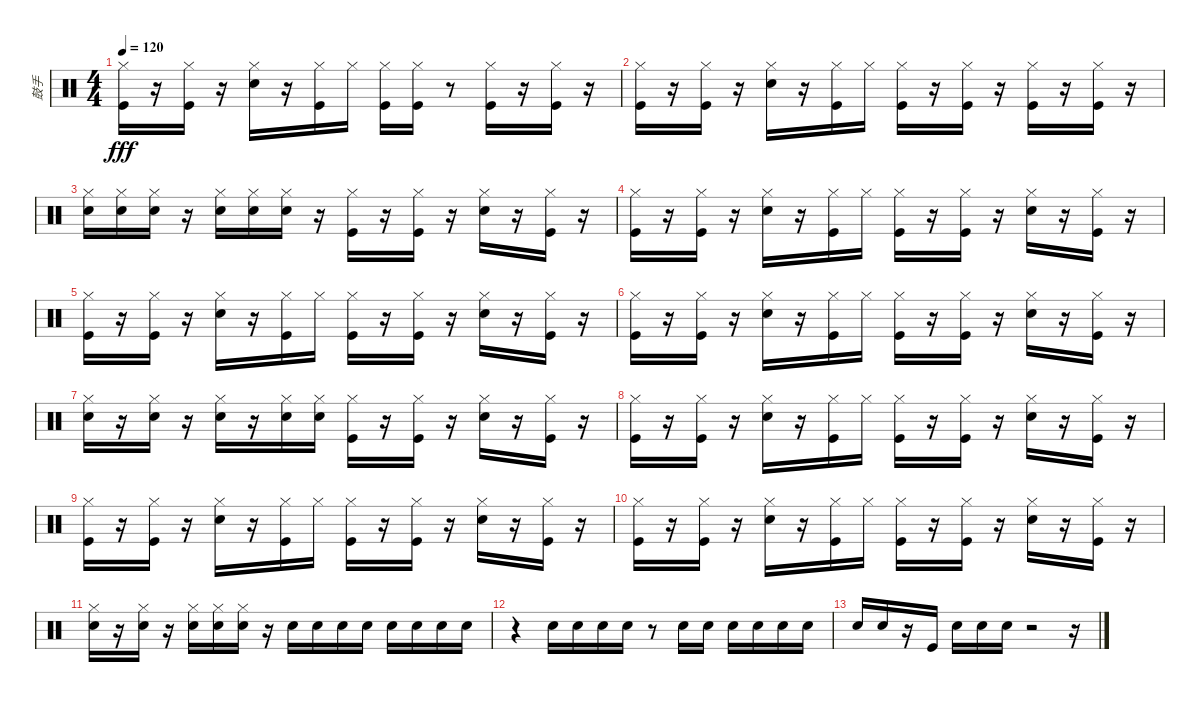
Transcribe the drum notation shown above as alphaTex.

\track ("鼓手" "鼓手") {instrument percussion}
\staff {score}
\articulation defaults
\ts (4 4)
\tempo 120
\clef neutral
\ks c
("Kick (hit)" "Hi-Hat (closed)").16{dy fff} r.16 ("Kick (hit)" "Hi-Hat (closed)").16 r.16 ("Snare (hit) 2" "Hi-Hat (closed)").16 r.16 ("Kick (hit)" "Hi-Hat (closed)").16 "Hi-Hat (closed)".16 ("Kick (hit)" "Hi-Hat (closed)").16 ("Kick (hit)" "Hi-Hat (closed)").16 r.8 ("Kick (hit)" "Hi-Hat (closed)").16 r.16 ("Kick (hit)" "Hi-Hat (closed)").16 r.16 |
("Kick (hit)" "Hi-Hat (closed)").16 r.16 ("Kick (hit)" "Hi-Hat (closed)").16 r.16 ("Snare (hit) 2" "Hi-Hat (closed)").16 r.16 ("Kick (hit)" "Hi-Hat (closed)").16 "Hi-Hat (closed)".16 ("Kick (hit)" "Hi-Hat (closed)").16 r.16 ("Kick (hit)" "Hi-Hat (closed)").16 r.16 ("Kick (hit)" "Hi-Hat (closed)").16 r.16 ("Kick (hit)" "Hi-Hat (closed)").16 r.16 |
("Snare (hit) 2" "Hi-Hat (closed)").16 ("Snare (hit) 2" "Hi-Hat (closed)").16 ("Snare (hit) 2" "Hi-Hat (closed)").16 r.16 ("Snare (hit) 2" "Hi-Hat (closed)").16 ("Snare (hit) 2" "Hi-Hat (closed)").16 ("Snare (hit) 2" "Hi-Hat (closed)").16 r.16 ("Kick (hit)" "Hi-Hat (closed)").16 r.16 ("Kick (hit)" "Hi-Hat (closed)").16 r.16 ("Snare (hit) 2" "Hi-Hat (closed)").16 r.16 ("Kick (hit)" "Hi-Hat (closed)").16 r.16 |
("Kick (hit)" "Hi-Hat (closed)").16 r.16 ("Kick (hit)" "Hi-Hat (closed)").16 r.16 ("Snare (hit) 2" "Hi-Hat (closed)").16 r.16 ("Kick (hit)" "Hi-Hat (closed)").16 "Hi-Hat (closed)".16 ("Kick (hit)" "Hi-Hat (closed)").16 r.16 ("Kick (hit)" "Hi-Hat (closed)").16 r.16 ("Snare (hit) 2" "Hi-Hat (closed)").16 r.16 ("Kick (hit)" "Hi-Hat (closed)").16 r.16 |
("Kick (hit)" "Hi-Hat (closed)").16 r.16 ("Kick (hit)" "Hi-Hat (closed)").16 r.16 ("Snare (hit) 2" "Hi-Hat (closed)").16 r.16 ("Kick (hit)" "Hi-Hat (closed)").16 "Hi-Hat (closed)".16 ("Kick (hit)" "Hi-Hat (closed)").16 r.16 ("Kick (hit)" "Hi-Hat (closed)").16 r.16 ("Snare (hit) 2" "Hi-Hat (closed)").16 r.16 ("Kick (hit)" "Hi-Hat (closed)").16 r.16 |
("Kick (hit)" "Hi-Hat (closed)").16 r.16 ("Kick (hit)" "Hi-Hat (closed)").16 r.16 ("Snare (hit) 2" "Hi-Hat (closed)").16 r.16 ("Kick (hit)" "Hi-Hat (closed)").16 "Hi-Hat (closed)".16 ("Kick (hit)" "Hi-Hat (closed)").16 r.16 ("Kick (hit)" "Hi-Hat (closed)").16 r.16 ("Snare (hit) 2" "Hi-Hat (closed)").16 r.16 ("Kick (hit)" "Hi-Hat (closed)").16 r.16 |
("Snare (hit) 2" "Hi-Hat (closed)").16 r.16 ("Snare (hit) 2" "Hi-Hat (closed)").16 r.16 ("Snare (hit) 2" "Hi-Hat (closed)").16 r.16 ("Snare (hit) 2" "Hi-Hat (closed)").16 ("Snare (hit) 2" "Hi-Hat (closed)").16 ("Kick (hit)" "Hi-Hat (closed)").16 r.16 ("Kick (hit)" "Hi-Hat (closed)").16 r.16 ("Snare (hit) 2" "Hi-Hat (closed)").16 r.16 ("Kick (hit)" "Hi-Hat (closed)").16 r.16 |
("Kick (hit)" "Hi-Hat (closed)").16 r.16 ("Kick (hit)" "Hi-Hat (closed)").16 r.16 ("Snare (hit) 2" "Hi-Hat (closed)").16 r.16 ("Kick (hit)" "Hi-Hat (closed)").16 "Hi-Hat (closed)".16 ("Kick (hit)" "Hi-Hat (closed)").16 r.16 ("Kick (hit)" "Hi-Hat (closed)").16 r.16 ("Snare (hit) 2" "Hi-Hat (closed)").16 r.16 ("Kick (hit)" "Hi-Hat (closed)").16 r.16 |
("Kick (hit)" "Hi-Hat (closed)").16 r.16 ("Kick (hit)" "Hi-Hat (closed)").16 r.16 ("Snare (hit) 2" "Hi-Hat (closed)").16 r.16 ("Kick (hit)" "Hi-Hat (closed)").16 "Hi-Hat (closed)".16 ("Kick (hit)" "Hi-Hat (closed)").16 r.16 ("Kick (hit)" "Hi-Hat (closed)").16 r.16 ("Snare (hit) 2" "Hi-Hat (closed)").16 r.16 ("Kick (hit)" "Hi-Hat (closed)").16 r.16 |
("Kick (hit)" "Hi-Hat (closed)").16 r.16 ("Kick (hit)" "Hi-Hat (closed)").16 r.16 ("Snare (hit) 2" "Hi-Hat (closed)").16 r.16 ("Kick (hit)" "Hi-Hat (closed)").16 "Hi-Hat (closed)".16 ("Kick (hit)" "Hi-Hat (closed)").16 r.16 ("Kick (hit)" "Hi-Hat (closed)").16 r.16 ("Snare (hit) 2" "Hi-Hat (closed)").16 r.16 ("Kick (hit)" "Hi-Hat (closed)").16 r.16 |
("Snare (hit) 2" "Hi-Hat (closed)").16 r.16 ("Snare (hit) 2" "Hi-Hat (closed)").16 r.16 ("Snare (hit) 2" "Hi-Hat (closed)").16 ("Snare (hit) 2" "Hi-Hat (closed)").16 ("Snare (hit) 2" "Hi-Hat (closed)").16 r.16 "Snare (hit) 2".16 "Snare (hit) 2".16 "Snare (hit) 2".16 "Snare (hit) 2".16 "Snare (hit) 2".16 "Snare (hit) 2".16 "Snare (hit) 2".16 "Snare (hit) 2".16 |
r.4 "Snare (hit) 2".16 "Snare (hit) 2".16 "Snare (hit) 2".16 "Snare (hit) 2".16 r.8 "Snare (hit) 2".16 "Snare (hit) 2".16 "Snare (hit) 2".16 "Snare (hit) 2".16 "Snare (hit) 2".16 "Snare (hit) 2".16 |
"Snare (hit) 2".16 "Snare (hit) 2".16 r.16 "Kick (hit)".16 "Snare (hit) 2".16 "Snare (hit) 2".16 "Snare (hit) 2".16 r.2 r.16
